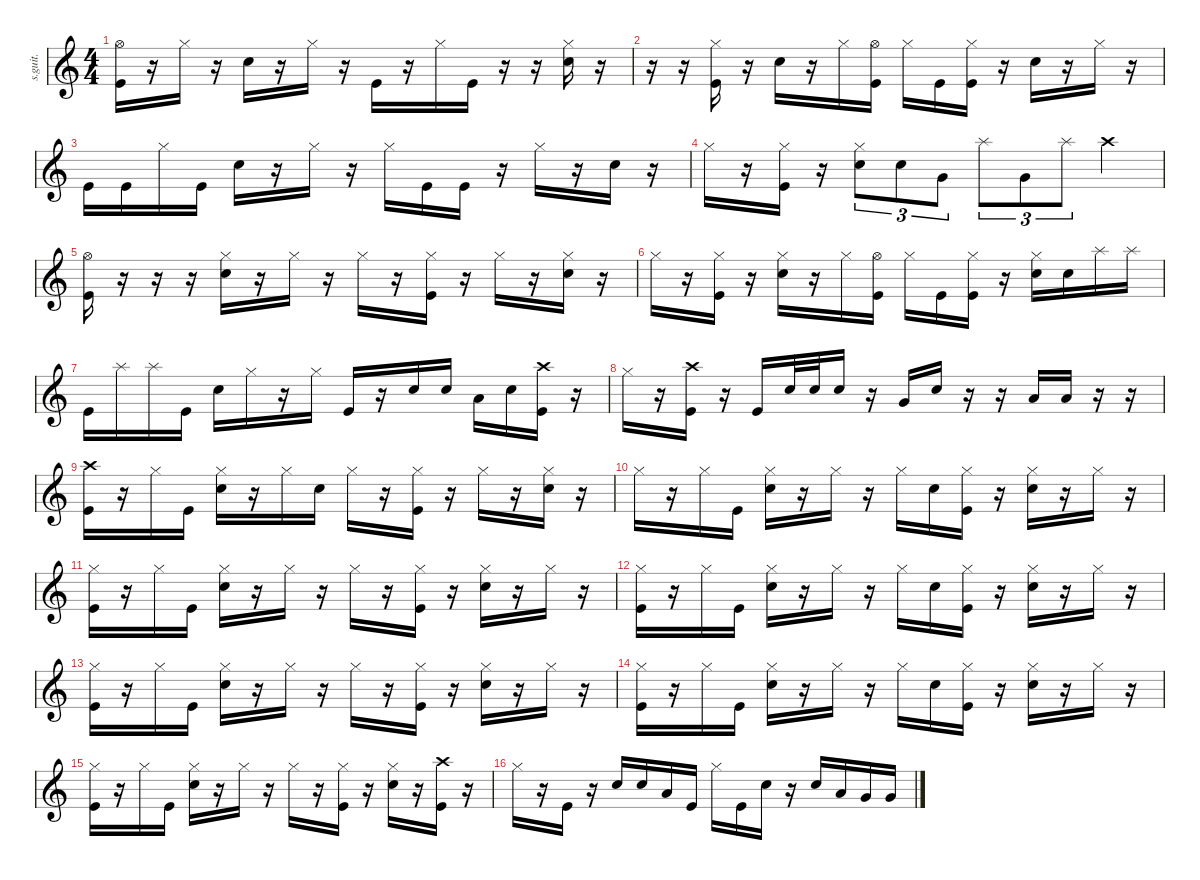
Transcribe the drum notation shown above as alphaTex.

\defaultSystemsLayout 4
\hideDynamics
\bracketExtendMode nobrackets
\track ("Percussion" "s.guit.") {instrument percussion}
\staff {score}
\articulation defaults
\ts (4 4)
\beaming (8 2 2 2 2)
\tempo (128 hide)
\clef g2
\ks c
("Hi-Hat (open)" "Kick (hit)").16{dy f} r.16 "Hi-Hat (closed)".16 r.16 "Electric Snare (hit)".16 r.16 "Hi-Hat (closed)".16 r.16 "Kick (hit)".16 r.16 "Hi-Hat (closed)".16 "Kick (hit)".16 r.16 r.16 ("Hi-Hat (closed)" "Electric Snare (hit)").16 r.16 |
r.16 r.16 ("Hi-Hat (closed)" "Kick (hit)").16 r.16 "Electric Snare (hit)".16 r.16 "Hi-Hat (closed)".16 ("Hi-Hat (open)" "Kick (hit)").16 "Hi-Hat (closed)".16 "Kick (hit)".16 ("Hi-Hat (closed)" "Kick (hit)").16 r.16 "Electric Snare (hit)".16 r.16 "Hi-Hat (closed)".16 r.16 |
"Kick (hit)".16 "Kick (hit)".16 "Hi-Hat (closed)".16 "Kick (hit)".16 "Electric Snare (hit)".16 r.16 "Hi-Hat (closed)".16 r.16 "Hi-Hat (closed)".16 "Kick (hit)".16 "Kick (hit)".16 r.16 "Hi-Hat (closed)".16 r.16 "Electric Snare (hit)".16 r.16 |
"Hi-Hat (closed)".16 r.16 ("Hi-Hat (closed)" "Kick (hit)").16 r.16 ("Hi-Hat (closed)" "Electric Snare (hit)").8{tu (3 2)} "Electric Snare (hit)".8{tu (3 2)} "Very Low Tom (hit)".8{tu (3 2)} "Splash (hit)".8{tu (3 2)} "Very Low Tom (hit)".8{tu (3 2)} "Splash (hit)".8{tu (3 2)} "Crash high (hit)".4 |
("Hi-Hat (open)" "Kick (hit)").16 r.16 r.16 r.16 ("Hi-Hat (closed)" "Electric Snare (hit)").16 r.16 "Hi-Hat (closed)".16 r.16 "Hi-Hat (closed)".16 r.16 ("Hi-Hat (closed)" "Kick (hit)").16 r.16 "Hi-Hat (closed)".16 r.16 ("Hi-Hat (closed)" "Electric Snare (hit)").16 r.16 |
"Hi-Hat (closed)".16 r.16 ("Hi-Hat (closed)" "Kick (hit)").16 r.16 ("Hi-Hat (closed)" "Electric Snare (hit)").16 r.16 "Hi-Hat (closed)".16 ("Hi-Hat (open)" "Kick (hit)").16 "Hi-Hat (closed)".16 "Kick (hit)".16 ("Hi-Hat (closed)" "Kick (hit)").16 r.16 ("Hi-Hat (closed)" "Electric Snare (hit)").16 "Electric Snare (hit)".16 "Splash (hit)".16 "Splash (hit)".16 |
"Kick (hit)".16 "Splash (hit)".16 "Splash (hit)".16 "Kick (hit)".16 "Electric Snare (hit)".16 "Hi-Hat (closed)".16 r.16 "Hi-Hat (closed)".16 "Kick (hit)".16 r.16 "Electric Snare (hit)".16 "Electric Snare (hit)".16 "Low Tom (hit)".16 "Electric Snare (hit)".16 ("Crash high (hit)" "Kick (hit)").16 r.16 |
"Hi-Hat (closed)".16 r.16 ("Crash high (hit)" "Kick (hit)").16 r.16 "Kick (hit)".16 "Electric Snare (hit)".32 "Electric Snare (hit)".32 "Electric Snare (hit)".16 r.16 "Very Low Tom (hit)".16 "Electric Snare (hit)".16 r.16 r.16 "Low Floor Tom (hit)".16 "Low Floor Tom (hit)".16 r.16 r.16 |
("Crash high (hit)" "Kick (hit)").16 r.16 "Hi-Hat (closed)".16 "Kick (hit)".16 ("Hi-Hat (closed)" "Electric Snare (hit)").16 r.16 "Hi-Hat (closed)".16 "Electric Snare (hit)".16 "Hi-Hat (closed)".16 r.16 ("Hi-Hat (closed)" "Kick (hit)").16 r.16 "Hi-Hat (closed)".16 r.16 ("Hi-Hat (closed)" "Electric Snare (hit)").16 r.16 |
"Hi-Hat (closed)".16 r.16 "Hi-Hat (closed)".16 "Kick (hit)".16 ("Hi-Hat (closed)" "Electric Snare (hit)").16 r.16 "Hi-Hat (closed)".16 r.16 "Hi-Hat (closed)".16 "Electric Snare (hit)".16 ("Hi-Hat (closed)" "Kick (hit)").16 r.16 ("Hi-Hat (closed)" "Electric Snare (hit)").16 r.16 "Hi-Hat (closed)".16 r.16 |
("Hi-Hat (closed)" "Kick (hit)").16 r.16 "Hi-Hat (closed)".16 "Kick (hit)".16 ("Hi-Hat (closed)" "Electric Snare (hit)").16 r.16 "Hi-Hat (closed)".16 r.16 "Hi-Hat (closed)".16 r.16 ("Hi-Hat (closed)" "Kick (hit)").16 r.16 ("Hi-Hat (closed)" "Electric Snare (hit)").16 r.16 "Hi-Hat (closed)".16 r.16 |
("Hi-Hat (closed)" "Kick (hit)").16 r.16 "Hi-Hat (closed)".16 "Kick (hit)".16 ("Hi-Hat (closed)" "Electric Snare (hit)").16 r.16 "Hi-Hat (closed)".16 r.16 "Hi-Hat (closed)".16 "Electric Snare (hit)".16 ("Hi-Hat (closed)" "Kick (hit)").16 r.16 ("Hi-Hat (closed)" "Electric Snare (hit)").16 r.16 "Hi-Hat (closed)".16 r.16 |
("Hi-Hat (closed)" "Kick (hit)").16 r.16 "Hi-Hat (closed)".16 "Kick (hit)".16 ("Hi-Hat (closed)" "Electric Snare (hit)").16 r.16 "Hi-Hat (closed)".16 r.16 "Hi-Hat (closed)".16 r.16 ("Hi-Hat (closed)" "Kick (hit)").16 r.16 ("Hi-Hat (closed)" "Electric Snare (hit)").16 r.16 "Hi-Hat (closed)".16 r.16 |
("Hi-Hat (closed)" "Kick (hit)").16 r.16 "Hi-Hat (closed)".16 "Kick (hit)".16 ("Hi-Hat (closed)" "Electric Snare (hit)").16 r.16 "Hi-Hat (closed)".16 r.16 "Hi-Hat (closed)".16 "Electric Snare (hit)".16 ("Hi-Hat (closed)" "Kick (hit)").16 r.16 ("Hi-Hat (closed)" "Electric Snare (hit)").16 r.16 "Hi-Hat (closed)".16 r.16 |
("Hi-Hat (closed)" "Kick (hit)").16 r.16 "Hi-Hat (closed)".16 "Kick (hit)".16 ("Hi-Hat (closed)" "Electric Snare (hit)").16 r.16 "Hi-Hat (closed)".16 r.16 "Hi-Hat (closed)".16 r.16 ("Hi-Hat (closed)" "Kick (hit)").16 r.16 ("Hi-Hat (closed)" "Electric Snare (hit)").16 r.16 ("Crash high (hit)" "Kick (hit)").16 r.16 |
"Hi-Hat (closed)".16 r.16 "Kick (hit)".16 r.16 "Electric Snare (hit)".16 "Electric Snare (hit)".16 "Low Tom (hit)".16 "Kick (hit)".16 "Hi-Hat (closed)".16 "Kick (hit)".16 "Electric Snare (hit)".16 r.16 "Electric Snare (hit)".16 "Low Tom (hit)".16 "Very Low Tom (hit)".16 "Very Low Tom (hit)".16
